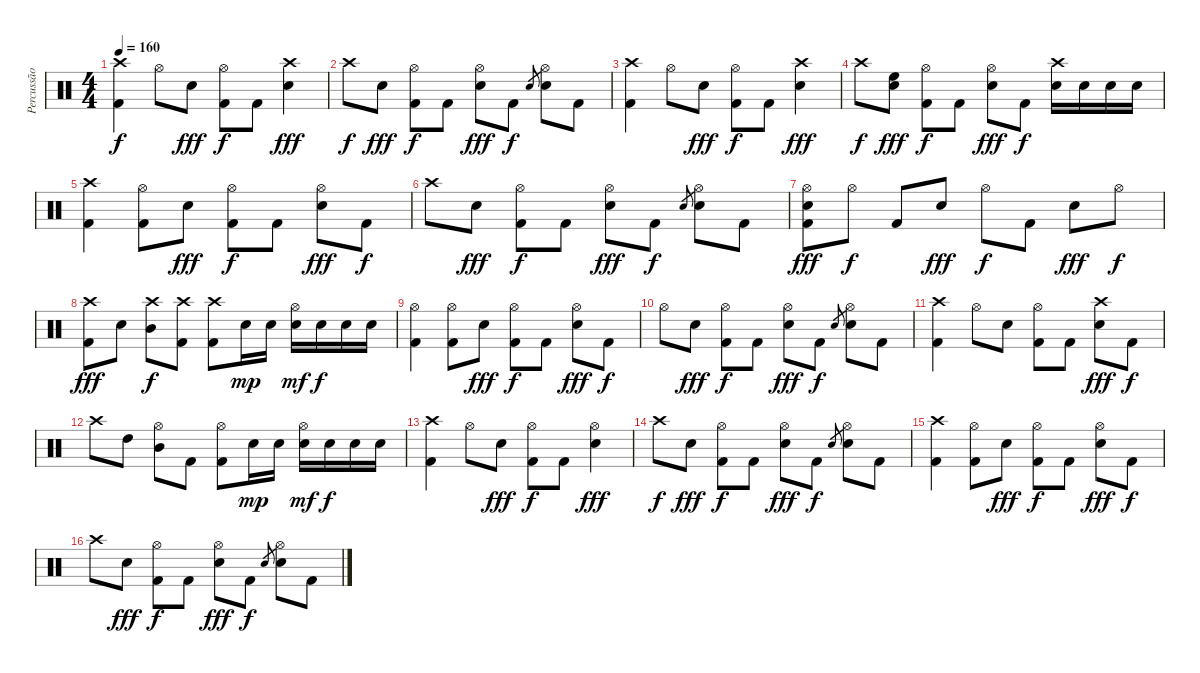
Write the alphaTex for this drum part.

\track ("Percussão" "Percussão") {instrument percussion}
\staff {score}
\articulation defaults
\ts (4 4)
\tempo 160
\clef neutral
\ks c
("Crash high (hit)" "Kick (hit) 2").4{dy f} "Hi-Hat (open)".8 "Electric Snare (hit)".8{dy fff} ("Hi-Hat (open)" "Kick (hit) 2").8{dy f} "Kick (hit) 2".8 ("Crash high (hit)" "Electric Snare (hit)").4{dy fff} |
"Crash high (hit)".8{dy f} "Electric Snare (hit)".8{dy fff} ("Hi-Hat (open)" "Kick (hit) 2").8{dy f} "Kick (hit) 2".8 ("Hi-Hat (open)" "Electric Snare (hit)").8{dy fff} "Kick (hit) 2".8{dy f} "Electric Snare (hit)".8{gr} ("Hi-Hat (open)" "Electric Snare (hit)").8 "Kick (hit) 2".8 |
("Crash high (hit)" "Kick (hit) 2").4 "Hi-Hat (open)".8 "Electric Snare (hit)".8{dy fff} ("Hi-Hat (open)" "Kick (hit) 2").8{dy f} "Kick (hit) 2".8 ("Crash high (hit)" "Electric Snare (hit)").4{dy fff} |
"Crash high (hit)".8{dy f} ("High Floor Tom (hit)" "Electric Snare (hit)").8{dy fff} ("Hi-Hat (open)" "Kick (hit) 2").8{dy f} "Kick (hit) 2".8 ("Hi-Hat (open)" "Electric Snare (hit)").8{dy fff} "Kick (hit) 2".8{dy f} ("Crash high (hit)" "Electric Snare (hit)").16 "Electric Snare (hit)".16 "Electric Snare (hit)".16 "Electric Snare (hit)".16 |
("Crash high (hit)" "Kick (hit) 2").4 ("Hi-Hat (open)" "Kick (hit) 2").8 "Electric Snare (hit)".8{dy fff} ("Hi-Hat (open)" "Kick (hit) 2").8{dy f} "Kick (hit) 2".8 ("Hi-Hat (open)" "Electric Snare (hit)").8{dy fff} "Kick (hit) 2".8{dy f} |
"Crash high (hit)".8 "Electric Snare (hit)".8{dy fff} ("Hi-Hat (open)" "Kick (hit) 2").8{dy f} "Kick (hit) 2".8 ("Hi-Hat (open)" "Electric Snare (hit)").8{dy fff} "Kick (hit) 2".8{dy f} "Electric Snare (hit)".8{gr} ("Hi-Hat (open)" "Electric Snare (hit)").8 "Kick (hit) 2".8 |
("Hi-Hat (open)" "Electric Snare (hit)" "Kick (hit) 2").8{dy fff} "Hi-Hat (open)".8{dy f} "Kick (hit) 2".8 "Electric Snare (hit)".8{dy fff} "Hi-Hat (open)".8{dy f} "Kick (hit) 2".8 "Electric Snare (hit)".8{dy fff} "Hi-Hat (open)".8{dy f} |
("Crash high (hit)" "Kick (hit) 2").8{dy fff} "Electric Snare (hit)".8 ("Crash high (hit)" "Mid Tom (hit)").8{dy f} ("Crash high (hit)" "Kick (hit) 2").8 ("Crash high (hit)" "Kick (hit) 2").8 "Electric Snare (hit)".16{dy mp} "Electric Snare (hit)".16 ("Hi-Hat (open)" "Electric Snare (hit)").16{dy mf} "Electric Snare (hit)".16{dy f} "Electric Snare (hit)".16 "Electric Snare (hit)".16 |
("Hi-Hat (open)" "Kick (hit) 2").4 ("Hi-Hat (open)" "Kick (hit) 2").8 "Electric Snare (hit)".8{dy fff} ("Hi-Hat (open)" "Kick (hit) 2").8{dy f} "Kick (hit) 2".8 ("Hi-Hat (open)" "Electric Snare (hit)").8{dy fff} "Kick (hit) 2".8{dy f} |
"Hi-Hat (open)".8 "Electric Snare (hit)".8{dy fff} ("Hi-Hat (open)" "Kick (hit) 2").8{dy f} "Kick (hit) 2".8 ("Hi-Hat (open)" "Electric Snare (hit)").8{dy fff} "Kick (hit) 2".8{dy f} "Electric Snare (hit)".8{gr} ("Hi-Hat (open)" "Electric Snare (hit)").8 "Kick (hit) 2".8 |
("Crash high (hit)" "Kick (hit) 2").4 "Hi-Hat (open)".8 "Electric Snare (hit)".8 ("Hi-Hat (open)" "Kick (hit) 2").8 "Kick (hit) 2".8 ("Crash high (hit)" "Electric Snare (hit)").8{dy fff} "Kick (hit) 2".8{dy f} |
"Crash high (hit)".8 "High Tom (hit)".8 ("Hi-Hat (open)" "Mid Tom (hit)").8 "Kick (hit) 2".8 ("Hi-Hat (open)" "Kick (hit) 2").8 "Electric Snare (hit)".16{dy mp} "Electric Snare (hit)".16 ("Hi-Hat (open)" "Electric Snare (hit)").16{dy mf} "Electric Snare (hit)".16{dy f} "Electric Snare (hit)".16 "Electric Snare (hit)".16 |
("Crash high (hit)" "Kick (hit) 2").4 "Hi-Hat (open)".8 "Electric Snare (hit)".8{dy fff} ("Hi-Hat (open)" "Kick (hit) 2").8{dy f} "Kick (hit) 2".8 ("Hi-Hat (open)" "Electric Snare (hit)").4{dy fff} |
"Crash high (hit)".8{dy f} "Electric Snare (hit)".8{dy fff} ("Hi-Hat (open)" "Kick (hit) 2").8{dy f} "Kick (hit) 2".8 ("Hi-Hat (open)" "Electric Snare (hit)").8{dy fff} "Kick (hit) 2".8{dy f} "Electric Snare (hit)".8{gr} ("Hi-Hat (open)" "Electric Snare (hit)").8 "Kick (hit) 2".8 |
("Crash high (hit)" "Kick (hit) 2").4 ("Hi-Hat (open)" "Kick (hit) 2").8 "Electric Snare (hit)".8{dy fff} ("Hi-Hat (open)" "Kick (hit) 2").8{dy f} "Kick (hit) 2".8 ("Hi-Hat (open)" "Electric Snare (hit)").8{dy fff} "Kick (hit) 2".8{dy f} |
"Crash high (hit)".8 "Electric Snare (hit)".8{dy fff} ("Hi-Hat (open)" "Kick (hit) 2").8{dy f} "Kick (hit) 2".8 ("Hi-Hat (open)" "Electric Snare (hit)").8{dy fff} "Kick (hit) 2".8{dy f} "Electric Snare (hit)".8{gr} ("Hi-Hat (open)" "Electric Snare (hit)").8 "Kick (hit) 2".8
